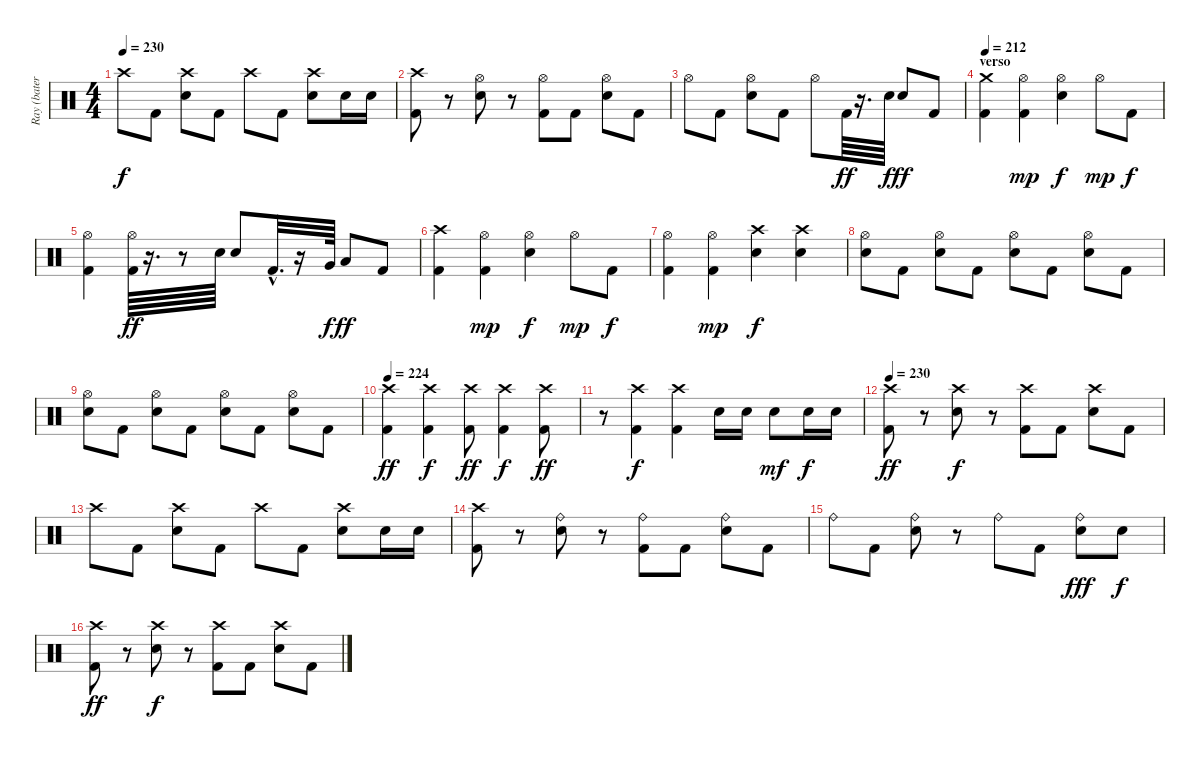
\track ("Ray (batería)" "Ray (bater") {instrument percussion}
\staff {score}
\articulation defaults
\ts (4 4)
\tempo 230
\clef neutral
\ks c "Crash high (hit)".8{dy f} "Kick (hit) 2".8
("Crash high (hit)" "Snare (hit) 2").8 "Kick (hit) 2".8 "Crash high (hit)".8 "Kick (hit) 2".8 ("Crash high (hit)" "Snare (hit) 2").8 "Snare (hit) 2".16 "Snare (hit) 2".16 |
("Crash high (hit)" "Kick (hit) 2").8 r.8 ("Hi-Hat (open)" "Snare (hit) 2").8 r.8 ("Hi-Hat (open)" "Kick (hit) 2").8 "Kick (hit) 2".8 ("Hi-Hat (open)" "Snare (hit) 2").8 "Kick (hit) 2".8 |
"Hi-Hat (open)".8 "Kick (hit) 2".8 ("Hi-Hat (open)" "Snare (hit) 2").8 "Kick (hit) 2".8 "Hi-Hat (open)".8 "Kick (hit) 2".64{dy ff} r.16{d} "Snare (hit) 2".64{dy f} "Snare (hit) 2".8{dy ff} "Kick (hit) 2".8 |
\section ("" "verso")
\tempo 212
("Crash medium (hit)" "Kick (hit) 2").4 ("Hi-Hat (open)" "Kick (hit) 2").4{dy mp} ("Hi-Hat (open)" "Snare (hit) 2").4{dy f} "Hi-Hat (open)".8{dy mp} "Kick (hit) 2".8{dy f} |
("Hi-Hat (open)" "Kick (hit) 2").4 ("Hi-Hat (open)" "Kick (hit) 2").64{dy ff} r.16{d} r.8 "Snare (hit) 2".64 "Snare (hit) 2".8 "Kick (hit) 2"{hac}.32{d} r.16 "Very Low Tom (hit)".64{dy f} "Low Tom (hit)".8{dy ff} "Kick (hit) 2".8 |
("Crash high (hit)" "Kick (hit) 2").4 ("Hi-Hat (open)" "Kick (hit) 2").4{dy mp} ("Hi-Hat (open)" "Snare (hit) 2").4{dy f} "Hi-Hat (open)".8{dy mp} "Kick (hit) 2".8{dy f} |
("Hi-Hat (open)" "Kick (hit) 2").4 ("Hi-Hat (open)" "Kick (hit) 2").4{dy mp} ("Crash high (hit)" "Snare (hit) 2").4{dy f} ("Crash high (hit)" "Snare (hit) 2").4 |
("Hi-Hat (open)" "Snare (hit) 2").8 "Kick (hit) 2".8 ("Hi-Hat (open)" "Snare (hit) 2").8 "Kick (hit) 2".8 ("Hi-Hat (open)" "Snare (hit) 2").8 "Kick (hit) 2".8 ("Hi-Hat (open)" "Snare (hit) 2").8 "Kick (hit) 2".8 |
("Hi-Hat (open)" "Snare (hit) 2").8 "Kick (hit) 2".8 ("Hi-Hat (open)" "Snare (hit) 2").8 "Kick (hit) 2".8 ("Hi-Hat (open)" "Snare (hit) 2").8 "Kick (hit) 2".8 ("Hi-Hat (open)" "Snare (hit) 2").8 "Kick (hit) 2".8 |
\tempo 224
("Crash high (hit)" "Kick (hit) 2").4{dy ff} ("Crash high (hit)" "Kick (hit) 2").4{dy f} ("Crash high (hit)" "Kick (hit) 2").8{dy ff} ("Crash high (hit)" "Kick (hit) 2").4{dy f} ("Crash high (hit)" "Kick (hit) 2").8{dy ff} |
r.8 ("Crash high (hit)" "Kick (hit) 2").4{dy f} ("Crash high (hit)" "Kick (hit) 2").4 "Snare (hit) 2".16 "Snare (hit) 2".16 "Snare (hit) 2".8{dy mf} "Snare (hit) 2".16{dy f} "Snare (hit) 2".16 |
\tempo 230
("Crash high (hit)" "Kick (hit) 2").8{dy ff} r.8 ("Crash high (hit)" "Snare (hit) 2").8{dy f} r.8 ("Crash high (hit)" "Kick (hit) 2").8 "Kick (hit) 2".8 ("Crash high (hit)" "Snare (hit) 2").8 "Kick (hit) 2".8 |
"Crash high (hit)".8 "Kick (hit) 2".8 ("Crash high (hit)" "Snare (hit) 2").8 "Kick (hit) 2".8 "Crash high (hit)".8 "Kick (hit) 2".8 ("Crash high (hit)" "Snare (hit) 2").8 "Snare (hit) 2".16 "Snare (hit) 2".16 |
("Crash high (hit)" "Kick (hit) 2").8 r.8 ("Ride (bell)" "Snare (hit) 2").8 r.8 ("Ride (bell)" "Kick (hit) 2").8 "Kick (hit) 2".8 ("Ride (bell)" "Snare (hit) 2").8 "Kick (hit) 2".8 |
"Ride (bell)".8 "Kick (hit) 2".8 ("Ride (bell)" "Snare (hit) 2").8 r.8 "Ride (bell)".8 "Kick (hit) 2".8 ("Ride (bell)" "Snare (hit) 2").8{dy fff} "Snare (hit) 2".8{dy f} |
("Crash high (hit)" "Kick (hit) 2").8{dy ff} r.8 ("Crash high (hit)" "Snare (hit) 2").8{dy f} r.8 ("Crash high (hit)" "Kick (hit) 2").8 "Kick (hit) 2".8 ("Crash high (hit)" "Snare (hit) 2").8 "Kick (hit) 2".8
